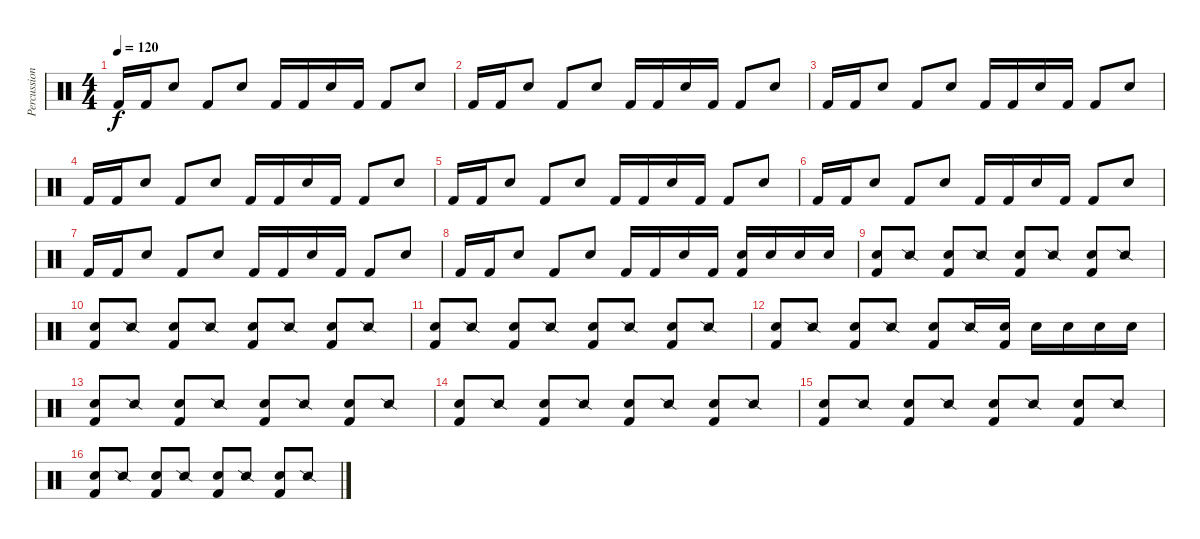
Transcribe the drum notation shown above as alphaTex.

\track ("Percussion" "Percussion") {instrument percussion}
\staff {score}
\articulation defaults
\ts (4 4)
\tempo 120
\clef neutral
\ks c "Kick (hit) 2".16{dy f} "Kick (hit) 2".16 "Snare (hit) 2".8 "Kick (hit) 2".8 "Snare (hit) 2".8 "Kick (hit) 2".16 "Kick (hit) 2".16 "Snare (hit) 2".16 "Kick (hit) 2".16 "Kick (hit) 2".8 "Snare (hit) 2".8
|
"Kick (hit) 2".16 "Kick (hit) 2".16 "Snare (hit) 2".8 "Kick (hit) 2".8 "Snare (hit) 2".8 "Kick (hit) 2".16 "Kick (hit) 2".16 "Snare (hit) 2".16 "Kick (hit) 2".16 "Kick (hit) 2".8 "Snare (hit) 2".8 |
"Kick (hit) 2".16 "Kick (hit) 2".16 "Snare (hit) 2".8 "Kick (hit) 2".8 "Snare (hit) 2".8 "Kick (hit) 2".16 "Kick (hit) 2".16 "Snare (hit) 2".16 "Kick (hit) 2".16 "Kick (hit) 2".8 "Snare (hit) 2".8 |
"Kick (hit) 2".16 "Kick (hit) 2".16 "Snare (hit) 2".8 "Kick (hit) 2".8 "Snare (hit) 2".8 "Kick (hit) 2".16 "Kick (hit) 2".16 "Snare (hit) 2".16 "Kick (hit) 2".16 "Kick (hit) 2".8 "Snare (hit) 2".8 |
"Kick (hit) 2".16 "Kick (hit) 2".16 "Snare (hit) 2".8 "Kick (hit) 2".8 "Snare (hit) 2".8 "Kick (hit) 2".16 "Kick (hit) 2".16 "Snare (hit) 2".16 "Kick (hit) 2".16 "Kick (hit) 2".8 "Snare (hit) 2".8 |
"Kick (hit) 2".16 "Kick (hit) 2".16 "Snare (hit) 2".8 "Kick (hit) 2".8 "Snare (hit) 2".8 "Kick (hit) 2".16 "Kick (hit) 2".16 "Snare (hit) 2".16 "Kick (hit) 2".16 "Kick (hit) 2".8 "Snare (hit) 2".8 |
"Kick (hit) 2".16 "Kick (hit) 2".16 "Snare (hit) 2".8 "Kick (hit) 2".8 "Snare (hit) 2".8 "Kick (hit) 2".16 "Kick (hit) 2".16 "Snare (hit) 2".16 "Kick (hit) 2".16 "Kick (hit) 2".8 "Snare (hit) 2".8 |
"Kick (hit) 2".16 "Kick (hit) 2".16 "Snare (hit) 2".8 "Kick (hit) 2".8 "Snare (hit) 2".8 "Kick (hit) 2".16 "Kick (hit) 2".16 "Snare (hit) 2".16 "Kick (hit) 2".16 ("Kick (hit) 2" "Snare (hit) 2").16 "Snare (hit) 2".16 "Snare (hit) 2".16 "Snare (hit) 2".16 |
("Kick (hit) 2" "Snare (hit) 2").8 "Snare (side stick) 2".8 ("Kick (hit) 2" "Snare (hit) 2").8 "Snare (side stick) 2".8 ("Kick (hit) 2" "Snare (hit) 2").8 "Snare (side stick) 2".8 ("Kick (hit) 2" "Snare (hit) 2").8 "Snare (side stick) 2".8 |
("Kick (hit) 2" "Snare (hit) 2").8 "Snare (side stick) 2".8 ("Kick (hit) 2" "Snare (hit) 2").8 "Snare (side stick) 2".8 ("Kick (hit) 2" "Snare (hit) 2").8 "Snare (side stick) 2".8 ("Kick (hit) 2" "Snare (hit) 2").8 "Snare (side stick) 2".8 |
("Kick (hit) 2" "Snare (hit) 2").8 "Snare (side stick) 2".8 ("Kick (hit) 2" "Snare (hit) 2").8 "Snare (side stick) 2".8 ("Kick (hit) 2" "Snare (hit) 2").8 "Snare (side stick) 2".8 ("Kick (hit) 2" "Snare (hit) 2").8 "Snare (side stick) 2".8 |
("Kick (hit) 2" "Snare (hit) 2").8 "Snare (side stick) 2".8 ("Kick (hit) 2" "Snare (hit) 2").8 "Snare (side stick) 2".8 ("Kick (hit) 2" "Snare (hit) 2").8 "Snare (side stick) 2".16 ("Kick (hit) 2" "Snare (hit) 2").16 "Snare (hit) 2".16 "Snare (hit) 2".16 "Snare (hit) 2".16 "Snare (hit) 2".16 |
("Kick (hit) 2" "Snare (hit) 2").8 "Snare (side stick) 2".8 ("Kick (hit) 2" "Snare (hit) 2").8 "Snare (side stick) 2".8 ("Kick (hit) 2" "Snare (hit) 2").8 "Snare (side stick) 2".8 ("Kick (hit) 2" "Snare (hit) 2").8 "Snare (side stick) 2".8 |
("Kick (hit) 2" "Snare (hit) 2").8 "Snare (side stick) 2".8 ("Kick (hit) 2" "Snare (hit) 2").8 "Snare (side stick) 2".8 ("Kick (hit) 2" "Snare (hit) 2").8 "Snare (side stick) 2".8 ("Kick (hit) 2" "Snare (hit) 2").8 "Snare (side stick) 2".8 |
("Kick (hit) 2" "Snare (hit) 2").8 "Snare (side stick) 2".8 ("Kick (hit) 2" "Snare (hit) 2").8 "Snare (side stick) 2".8 ("Kick (hit) 2" "Snare (hit) 2").8 "Snare (side stick) 2".8 ("Kick (hit) 2" "Snare (hit) 2").8 "Snare (side stick) 2".8 |
("Kick (hit) 2" "Snare (hit) 2").8 "Snare (side stick) 2".8 ("Kick (hit) 2" "Snare (hit) 2").8 "Snare (side stick) 2".8 ("Kick (hit) 2" "Snare (hit) 2").8 "Snare (side stick) 2".8 ("Kick (hit) 2" "Snare (hit) 2").8 "Snare (side stick) 2".8
